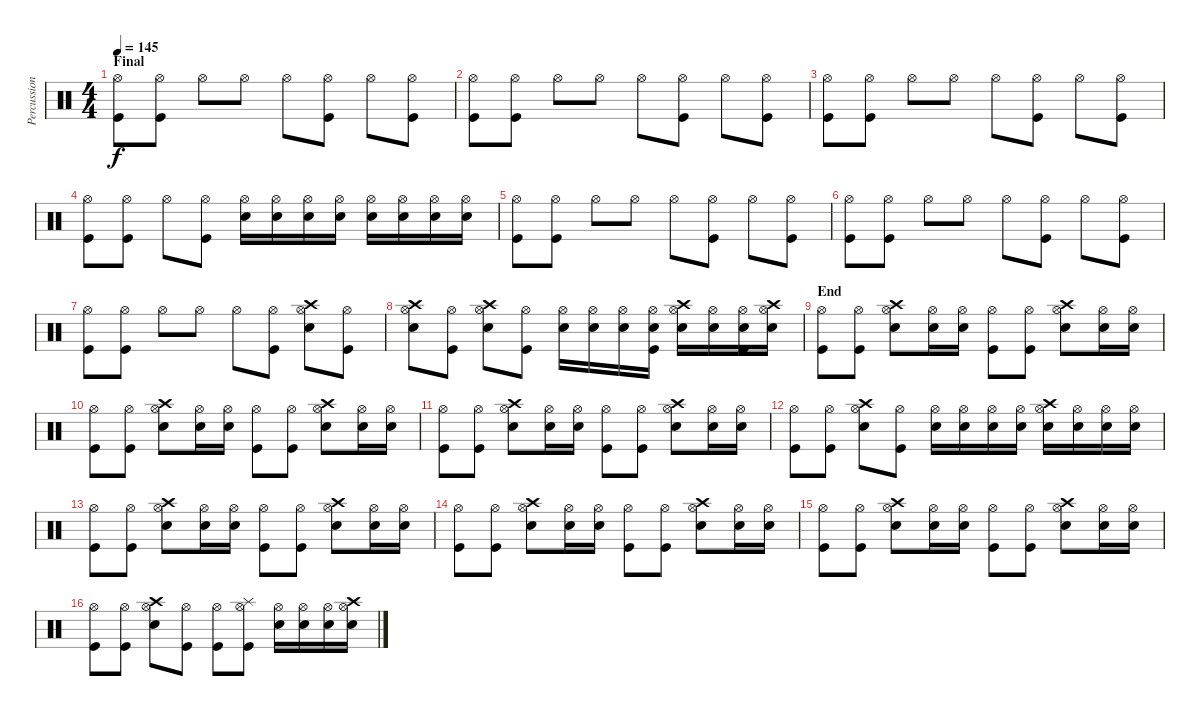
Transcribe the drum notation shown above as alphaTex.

\track ("Percussion" "Percussion") {instrument percussion}
\staff {score}
\articulation defaults
\ts (4 4)
\section ("" "Final")
\tempo 145
\clef neutral
\ks c
("Hi-Hat (open)" "Kick (hit)").8{dy f} ("Hi-Hat (open)" "Kick (hit)").8 "Hi-Hat (open)".8 "Hi-Hat (open)".8 "Hi-Hat (open)".8 ("Hi-Hat (open)" "Kick (hit)").8 "Hi-Hat (open)".8 ("Hi-Hat (open)" "Kick (hit)").8 |
("Hi-Hat (open)" "Kick (hit)").8 ("Hi-Hat (open)" "Kick (hit)").8 "Hi-Hat (open)".8 "Hi-Hat (open)".8 "Hi-Hat (open)".8 ("Hi-Hat (open)" "Kick (hit)").8 "Hi-Hat (open)".8 ("Hi-Hat (open)" "Kick (hit)").8 |
("Hi-Hat (open)" "Kick (hit)").8 ("Hi-Hat (open)" "Kick (hit)").8 "Hi-Hat (open)".8 "Hi-Hat (open)".8 "Hi-Hat (open)".8 ("Hi-Hat (open)" "Kick (hit)").8 "Hi-Hat (open)".8 ("Hi-Hat (open)" "Kick (hit)").8 |
("Hi-Hat (open)" "Kick (hit)").8 ("Hi-Hat (open)" "Kick (hit)").8 "Hi-Hat (open)".8 ("Hi-Hat (open)" "Kick (hit)").8 ("Hi-Hat (open)" "Snare (hit) 2").16 ("Hi-Hat (open)" "Snare (hit) 2").16 ("Hi-Hat (open)" "Snare (hit) 2").16 ("Hi-Hat (open)" "Snare (hit) 2").16 ("Hi-Hat (open)" "Snare (hit) 2").16 ("Hi-Hat (open)" "Snare (hit) 2").16 ("Hi-Hat (open)" "Snare (hit) 2").16 ("Hi-Hat (open)" "Snare (hit) 2").16 |
("Hi-Hat (open)" "Kick (hit)").8 ("Hi-Hat (open)" "Kick (hit)").8 "Hi-Hat (open)".8 "Hi-Hat (open)".8 "Hi-Hat (open)".8 ("Hi-Hat (open)" "Kick (hit)").8 "Hi-Hat (open)".8 ("Hi-Hat (open)" "Kick (hit)").8 |
("Hi-Hat (open)" "Kick (hit)").8 ("Hi-Hat (open)" "Kick (hit)").8 "Hi-Hat (open)".8 "Hi-Hat (open)".8 "Hi-Hat (open)".8 ("Hi-Hat (open)" "Kick (hit)").8 "Hi-Hat (open)".8 ("Hi-Hat (open)" "Kick (hit)").8 |
("Hi-Hat (open)" "Kick (hit)").8 ("Hi-Hat (open)" "Kick (hit)").8 "Hi-Hat (open)".8 "Hi-Hat (open)".8 "Hi-Hat (open)".8 ("Hi-Hat (open)" "Kick (hit)").8 ("Hi-Hat (open)" "Snare (hit) 2" "Crash high (hit)").8 ("Hi-Hat (open)" "Kick (hit)").8 |
("Hi-Hat (open)" "Snare (hit) 2" "Crash high (hit)").8 ("Hi-Hat (open)" "Kick (hit)").8 ("Hi-Hat (open)" "Snare (hit) 2" "Crash high (hit)").8 ("Hi-Hat (open)" "Kick (hit)").8 ("Hi-Hat (open)" "Snare (hit) 2").16 ("Hi-Hat (open)" "Snare (hit) 2").16 ("Hi-Hat (open)" "Snare (hit) 2").16 ("Hi-Hat (open)" "Snare (hit) 2" "Kick (hit)").16 ("Hi-Hat (open)" "Snare (hit) 2" "Crash high (hit)").16 ("Hi-Hat (open)" "Snare (hit) 2").16 ("Hi-Hat (open)" "Snare (hit) 2" "Kick (hit)").16 ("Hi-Hat (open)" "Snare (hit) 2" "Crash high (hit)").16 |
\section ("" "End")
("Hi-Hat (open)" "Kick (hit)").8 ("Hi-Hat (open)" "Kick (hit)").8 ("Hi-Hat (open)" "Snare (hit) 2" "Crash high (hit)").8 ("Hi-Hat (open)" "Snare (hit) 2").16 ("Hi-Hat (open)" "Snare (hit) 2").16 ("Hi-Hat (open)" "Kick (hit)").8 ("Hi-Hat (open)" "Kick (hit)").8 ("Hi-Hat (open)" "Snare (hit) 2" "Crash high (hit)").8 ("Hi-Hat (open)" "Snare (hit) 2").16 ("Hi-Hat (open)" "Snare (hit) 2").16 |
("Hi-Hat (open)" "Kick (hit)").8 ("Hi-Hat (open)" "Kick (hit)").8 ("Hi-Hat (open)" "Snare (hit) 2" "Crash high (hit)").8 ("Hi-Hat (open)" "Snare (hit) 2").16 ("Hi-Hat (open)" "Snare (hit) 2").16 ("Hi-Hat (open)" "Kick (hit)").8 ("Hi-Hat (open)" "Kick (hit)").8 ("Hi-Hat (open)" "Snare (hit) 2" "Crash high (hit)").8 ("Hi-Hat (open)" "Snare (hit) 2").16 ("Hi-Hat (open)" "Snare (hit) 2").16 |
("Hi-Hat (open)" "Kick (hit)").8 ("Hi-Hat (open)" "Kick (hit)").8 ("Hi-Hat (open)" "Snare (hit) 2" "Crash high (hit)").8 ("Hi-Hat (open)" "Snare (hit) 2").16 ("Hi-Hat (open)" "Snare (hit) 2").16 ("Hi-Hat (open)" "Kick (hit)").8 ("Hi-Hat (open)" "Kick (hit)").8 ("Hi-Hat (open)" "Snare (hit) 2" "Crash high (hit)").8 ("Hi-Hat (open)" "Snare (hit) 2").16 ("Hi-Hat (open)" "Snare (hit) 2").16 |
("Hi-Hat (open)" "Kick (hit)").8 ("Hi-Hat (open)" "Kick (hit)").8 ("Hi-Hat (open)" "Snare (hit) 2" "Crash high (hit)").8 ("Hi-Hat (open)" "Kick (hit)").8 ("Hi-Hat (open)" "Snare (hit) 2").16 ("Hi-Hat (open)" "Snare (hit) 2").16 ("Hi-Hat (open)" "Snare (hit) 2").16 ("Hi-Hat (open)" "Snare (hit) 2").16 ("Hi-Hat (open)" "Snare (hit) 2" "Crash high (hit)").16 ("Hi-Hat (open)" "Snare (hit) 2").16 ("Hi-Hat (open)" "Snare (hit) 2").16 ("Hi-Hat (open)" "Snare (hit) 2").16 |
("Hi-Hat (open)" "Kick (hit)").8 ("Hi-Hat (open)" "Kick (hit)").8 ("Hi-Hat (open)" "Snare (hit) 2" "Crash high (hit)").8 ("Hi-Hat (open)" "Snare (hit) 2").16 ("Hi-Hat (open)" "Snare (hit) 2").16 ("Hi-Hat (open)" "Kick (hit)").8 ("Hi-Hat (open)" "Kick (hit)").8 ("Hi-Hat (open)" "Snare (hit) 2" "Crash high (hit)").8 ("Hi-Hat (open)" "Snare (hit) 2").16 ("Hi-Hat (open)" "Snare (hit) 2").16 |
("Hi-Hat (open)" "Kick (hit)").8 ("Hi-Hat (open)" "Kick (hit)").8 ("Hi-Hat (open)" "Snare (hit) 2" "Crash high (hit)").8 ("Hi-Hat (open)" "Snare (hit) 2").16 ("Hi-Hat (open)" "Snare (hit) 2").16 ("Hi-Hat (open)" "Kick (hit)").8 ("Hi-Hat (open)" "Kick (hit)").8 ("Hi-Hat (open)" "Snare (hit) 2" "Crash high (hit)").8 ("Hi-Hat (open)" "Snare (hit) 2").16 ("Hi-Hat (open)" "Snare (hit) 2").16 |
("Hi-Hat (open)" "Kick (hit)").8 ("Hi-Hat (open)" "Kick (hit)").8 ("Hi-Hat (open)" "Snare (hit) 2" "Crash high (hit)").8 ("Hi-Hat (open)" "Snare (hit) 2").16 ("Hi-Hat (open)" "Snare (hit) 2").16 ("Hi-Hat (open)" "Kick (hit)").8 ("Hi-Hat (open)" "Kick (hit)").8 ("Hi-Hat (open)" "Snare (hit) 2" "Crash high (hit)").8 ("Hi-Hat (open)" "Snare (hit) 2").16 ("Hi-Hat (open)" "Snare (hit) 2").16 |
("Hi-Hat (open)" "Kick (hit)").8 ("Hi-Hat (open)" "Kick (hit)").8 ("Hi-Hat (open)" "Snare (hit) 2" "Crash high (hit)").8 ("Hi-Hat (open)" "Kick (hit)").8 ("Hi-Hat (open)" "Kick (hit)").8 ("Hi-Hat (open)" "Splash (hit)" "Kick (hit)").8 ("Hi-Hat (open)" "Snare (hit) 2").16 ("Hi-Hat (open)" "Snare (hit) 2").16 ("Hi-Hat (open)" "Snare (hit) 2").16 ("Hi-Hat (open)" "Snare (hit) 2" "Crash high (hit)").16
